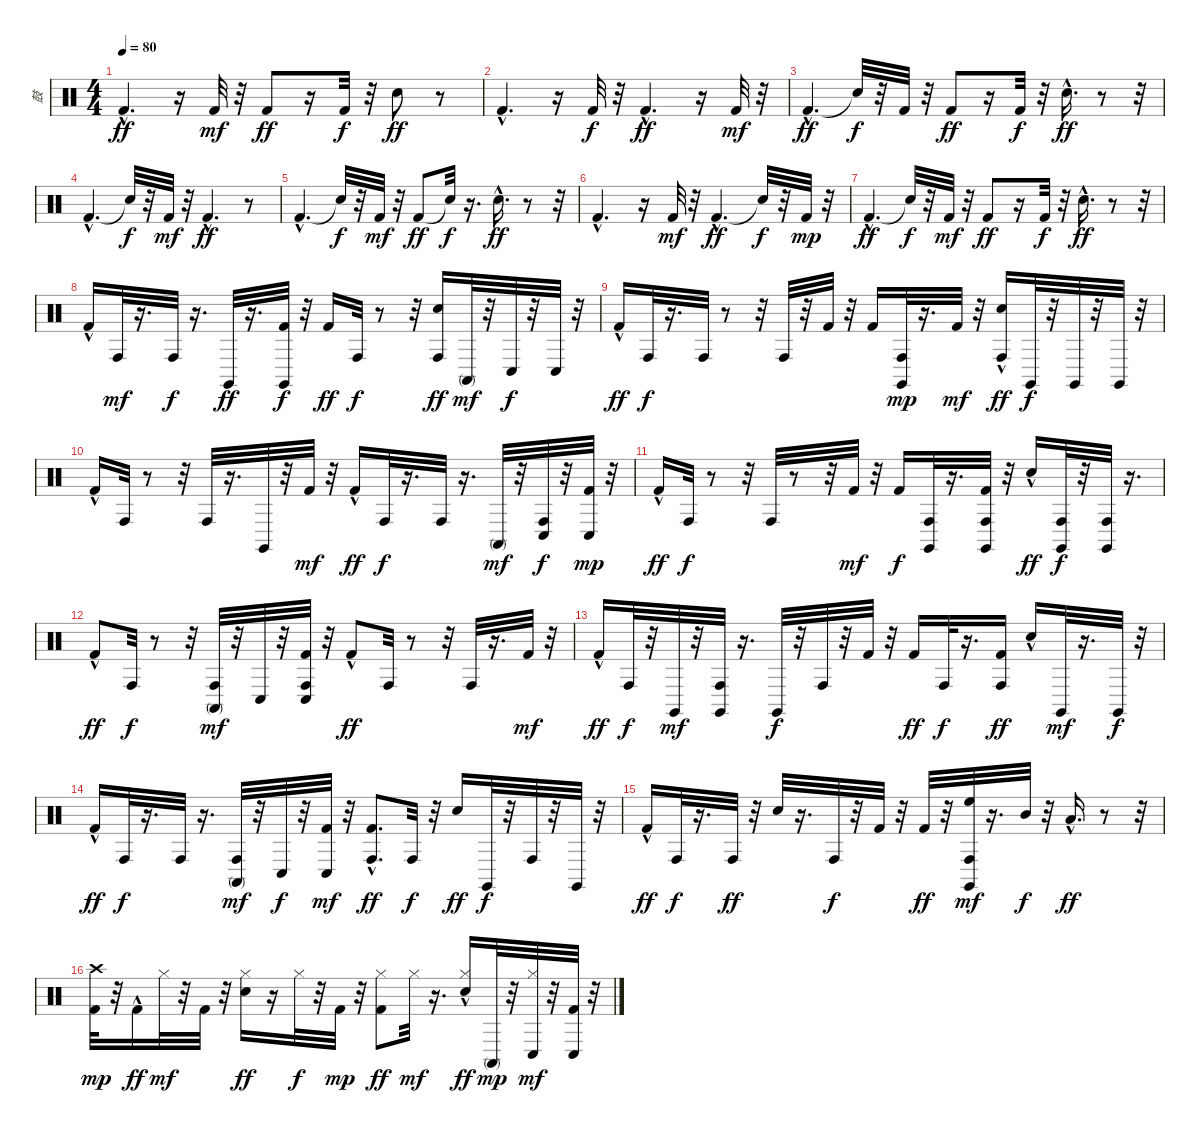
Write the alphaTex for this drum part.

\track ("鼓" "鼓") {instrument percussion}
\staff {score}
\articulation defaults
\ts (4 4)
\tempo 80
\clef neutral
\ks c "Kick (hit) 2"{hac}.4{d dy ff}
r.16 "Kick (hit) 2".32{dy mf} r.32 "Kick (hit) 2".8{dy ff} r.16 "Kick (hit) 2".32{dy f} r.32 "Hand Clap (hit)".8{dy ff} r.8 |
"Kick (hit) 2"{hac}.4{d} r.16 "Kick (hit) 2".32{dy f} r.32 "Kick (hit) 2"{hac}.4{d dy ff} r.16 "Kick (hit) 2".32{dy mf} r.32 |
"Kick (hit) 2"{hac}.4{d dy ff} "Snare (hit)"{t}.32{dy f} r.32 "Kick (hit) 2".32 r.32 "Kick (hit) 2".8{dy ff} r.16 "Kick (hit) 2".32{dy f} r.32 "Hand Clap (hit)"{hac}.16{d dy ff} r.8 r.32 |
"Kick (hit) 2"{hac}.4{d} "Snare (hit)"{t}.32{dy f} r.32 "Kick (hit) 2".32{dy mf} r.32 "Kick (hit) 2"{hac}.4{d dy ff} r.8 |
"Kick (hit) 2"{hac}.4{d} "Snare (hit)"{t}.32{dy f} r.32 "Kick (hit) 2".32{dy mf} r.32 "Kick (hit) 2".8{dy ff} "Snare (hit)"{t}.32{dy f} r.16{d} "Hand Clap (hit)"{hac}.16{d dy ff} r.8 r.32 |
"Kick (hit) 2"{hac}.4{d} r.16 "Kick (hit) 2".32{dy mf} r.32 "Kick (hit) 2"{hac}.4{d dy ff} "Snare (hit)"{t}.32{dy f} r.32 "Kick (hit) 2".32{dy mp} r.32 |
"Kick (hit) 2"{hac}.4{d dy ff} "Snare (hit)"{t}.32{dy f} r.32 "Kick (hit) 2".32{dy mf} r.32 "Kick (hit) 2".8{dy ff} r.16 "Kick (hit) 2".32{dy f} r.32 "Hand Clap (hit)"{hac}.16{d dy ff} r.8 r.32 |
"Kick (hit) 2"{hac}.16 "Conga high (hit)".32{dy mf} r.16{d} "Conga high (hit)".32{dy f} r.16{d} "Claves (hit)".32{dy ff} r.16{d} ("Kick (hit) 2" "Claves (hit)").32{dy f} r.32 "Kick (hit) 2".16{dy ff} "Conga high (hit)".32{dy f} r.8 r.32 ("Hand Clap (hit)" "Conga high (hit)").16{dy ff} "Conga high (mute)".32{dy mf} r.32 "Conga low (hit)".32{dy f} r.32 "Conga low (hit)".32 r.32 |
"Kick (hit) 2"{hac}.16{dy ff} "Conga high (hit)".32{dy f} r.16{d} "Conga high (hit)".32 r.8 r.32 "Conga high (hit)".32 r.32 "Kick (hit) 2".32 r.32 "Kick (hit) 2".16 ("Conga high (hit)" "Claves (hit)").32{dy mp} r.16{d} "Kick (hit) 2".32{dy mf} r.32 ("Hand Clap (hit)"{hac} "Conga high (hit)").16{dy ff} "Claves (hit)".32{dy f} r.32 "Claves (hit)".32 r.32 "Claves (hit)".32 r.32 |
"Kick (hit) 2"{hac}.16 "Conga high (hit)".32 r.8 r.32 "Conga high (hit)".32 r.16{d} "Claves (hit)".32 r.32 "Kick (hit) 2".32{dy mf} r.32 "Kick (hit) 2"{hac}.16{dy ff} "Conga high (hit)".32{dy f} r.16{d} "Conga high (hit)".32 r.16{d} "Conga high (mute)".32{dy mf} r.32 ("Conga high (hit)" "Conga low (hit)").32{dy f} r.32 ("Kick (hit) 2" "Conga low (hit)").32{dy mp} r.32 |
"Kick (hit) 2"{hac}.16{dy ff} "Conga high (hit)".32{dy f} r.8 r.32 "Conga high (hit)".32 r.8 r.32 "Kick (hit) 2".32{dy mf} r.32 "Kick (hit) 2".16{dy f} ("Conga high (hit)" "Claves (hit)").32 r.16{d} ("Kick (hit) 2" "Conga high (hit)" "Claves (hit)").32 r.32 "Hand Clap (hit)"{hac}.16{dy ff} ("Conga high (hit)" "Claves (hit)").32{dy f} r.32 ("Conga high (hit)" "Claves (hit)").32 r.16{d} |
"Kick (hit) 2"{hac}.8{dy ff} "Conga high (hit)".32{dy f} r.8 r.32 ("Conga high (hit)" "Conga high (mute)").32{dy mf} r.32 "Conga low (hit)".32 r.32 ("Kick (hit) 2" "Conga high (hit)" "Conga low (hit)").32 r.32 "Kick (hit) 2"{hac}.8{dy ff} "Conga high (hit)".32 r.8 r.32 "Conga high (hit)".32 r.16{d} "Kick (hit) 2".32{dy mf} r.32 |
"Kick (hit) 2"{hac}.16{dy ff} "Conga high (hit)".32{dy f} r.32 "Claves (hit)".32{dy mf} r.32 ("Conga high (hit)" "Claves (hit)").32 r.16{d} "Claves (hit)".32{dy f} r.32 "Conga high (hit)".32 r.32 "Kick (hit) 2".32 r.32 "Kick (hit) 2".16{dy ff} "Conga high (hit)".32{dy f} r.16{d} ("Kick (hit) 2" "Conga high (hit)").16{dy ff} "Hand Clap (hit)"{hac}.16 "Claves (hit)".32{dy mf} r.16{d} "Claves (hit)".32{dy f} r.32 |
"Kick (hit) 2"{hac}.16{dy ff} "Conga high (hit)".32{dy f} r.16{d} "Conga high (hit)".32 r.16{d} ("Conga high (hit)" "Conga high (mute)").32{dy mf} r.32 "Conga low (hit)".32{dy f} r.32 ("Kick (hit) 2" "Conga low (hit)").32{dy mf} r.32 ("Kick (hit) 2"{hac} "Conga high (hit)").8{d dy ff} "Conga high (hit)".32{dy f} r.32 "Hand Clap (hit)".16{dy ff} "Claves (hit)".32{dy f} r.32 "Conga high (hit)".32 r.32 "Claves (hit)".32 r.32 |
"Kick (hit) 2"{hac}.16{dy ff} "Conga high (hit)".32{dy f} r.16{d} "Conga high (hit)".32{dy ff} r.32 "Hand Clap (hit)".32 r.16{d} "Conga high (hit)".32{dy f} r.32 "Kick (hit) 2".32 r.32 "Kick (hit) 2".32{dy ff} r.32 ("High Floor Tom (hit)" "Conga high (hit)" "Claves (hit)").32{dy mf} r.16{d} "Mid Tom (hit)".32{dy f} r.32 "Low Tom (hit)"{hac}.16{d dy ff} r.8 r.32 |
("Kick (hit) 2" "Crash high (hit)").32{dy mp} r.32 "Kick (hit) 2"{hac}.16{dy ff} "Hi-Hat (closed)".32{dy mf} r.32 "Kick (hit) 2".32 r.32 ("Electric Snare (hit)" "Hi-Hat (closed)").16{dy ff} r.16 "Hi-Hat (closed)".32{dy f} r.32 "Kick (hit) 2".32{dy mp} r.32 ("Kick (hit) 2" "Hi-Hat (closed)").8{dy ff} "Hi-Hat (closed)".32{dy mf} r.16{d} ("Electric Snare (hit)"{hac} "Hi-Hat (closed)").16{dy ff} "Conga high (mute)".32{dy mp} r.32 ("Hi-Hat (closed)" "Conga low (hit)").32{dy mf} r.32 ("Kick (hit) 2" "Conga low (hit)").32 r.32
